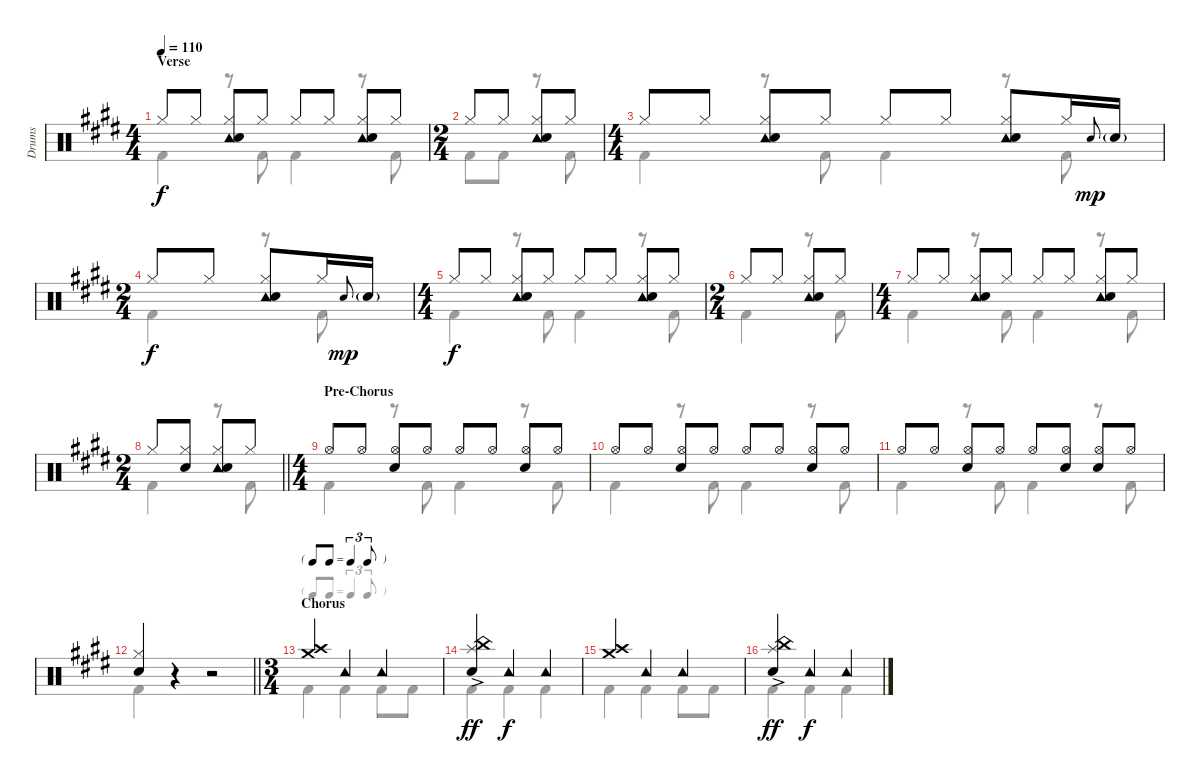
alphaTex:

\track ("Drums" "Drums") {instrument percussion}
\staff {score}
\articulation defaults
\voice
\ts (4 4)
\section ("" "Verse")
\tempo 110
\clef neutral
\ks e "Hi-Hat (closed)".8{dy f} "Hi-Hat (closed)".8
("Tambourine (hit)" "Hi-Hat (closed)" "Snare (hit) 2").8 "Hi-Hat (closed)".8 "Hi-Hat (closed)".8 "Hi-Hat (closed)".8 ("Tambourine (hit)" "Hi-Hat (closed)" "Snare (hit) 2").8 "Hi-Hat (closed)".8 |
\ts (2 4)
"Hi-Hat (closed)".8 "Hi-Hat (closed)".8 ("Tambourine (hit)" "Hi-Hat (closed)" "Snare (hit) 2").8 "Hi-Hat (closed)".8 |
\ts (4 4)
"Hi-Hat (closed)".8 "Hi-Hat (closed)".8 ("Tambourine (hit)" "Hi-Hat (closed)" "Snare (hit) 2").8 "Hi-Hat (closed)".8 "Hi-Hat (closed)".8 "Hi-Hat (closed)".8 ("Tambourine (hit)" "Hi-Hat (closed)" "Snare (hit) 2").8 "Hi-Hat (closed)".16 "Snare (hit) 2".8{gr onbeat dy mp} "Snare (hit) 2"{g}.16 |
\ts (2 4)
"Hi-Hat (closed)".8{dy f} "Hi-Hat (closed)".8 ("Tambourine (hit)" "Hi-Hat (closed)" "Snare (hit) 2").8 "Hi-Hat (closed)".16 "Snare (hit) 2".8{gr onbeat dy mp} "Snare (hit) 2"{g}.16 |
\ts (4 4)
"Hi-Hat (closed)".8{dy f} "Hi-Hat (closed)".8 ("Tambourine (hit)" "Hi-Hat (closed)" "Snare (hit) 2").8 "Hi-Hat (closed)".8 "Hi-Hat (closed)".8 "Hi-Hat (closed)".8 ("Tambourine (hit)" "Hi-Hat (closed)" "Snare (hit) 2").8 "Hi-Hat (closed)".8 |
\ts (2 4)
"Hi-Hat (closed)".8 "Hi-Hat (closed)".8 ("Tambourine (hit)" "Hi-Hat (closed)" "Snare (hit) 2").8 "Hi-Hat (closed)".8 |
\ts (4 4)
"Hi-Hat (closed)".8 "Hi-Hat (closed)".8 ("Tambourine (hit)" "Hi-Hat (closed)" "Snare (hit) 2").8 "Hi-Hat (closed)".8 "Hi-Hat (closed)".8 "Hi-Hat (closed)".8 ("Tambourine (hit)" "Hi-Hat (closed)" "Snare (hit) 2").8 "Hi-Hat (closed)".8 |
\ts (2 4)
\barLineRight lightlight "Hi-Hat (closed)".8
("Hi-Hat (closed)" "Snare (hit) 2").8 ("Tambourine (hit)" "Hi-Hat (closed)" "Snare (hit) 2").8 "Hi-Hat (closed)".8 |
\ts (4 4)
\section ("" "Pre-Chorus")
"Hi-Hat (open)".8 "Hi-Hat (open)".8 ("Hi-Hat (open)" "Snare (hit) 2").8 "Hi-Hat (open)".8 "Hi-Hat (open)".8 "Hi-Hat (open)".8 ("Hi-Hat (open)" "Snare (hit) 2").8 "Hi-Hat (open)".8 |
"Hi-Hat (open)".8 "Hi-Hat (open)".8 ("Hi-Hat (open)" "Snare (hit) 2").8 "Hi-Hat (open)".8 "Hi-Hat (open)".8 "Hi-Hat (open)".8 ("Hi-Hat (open)" "Snare (hit) 2").8 "Hi-Hat (open)".8 |
"Hi-Hat (open)".8 "Hi-Hat (open)".8 ("Hi-Hat (open)" "Snare (hit) 2").8 "Hi-Hat (open)".8 "Hi-Hat (open)".8 ("Hi-Hat (open)" "Snare (hit) 2").8 ("Hi-Hat (open)" "Snare (hit) 2").8 "Hi-Hat (open)".8 |
\barLineRight lightlight
("Hi-Hat (closed)" "Snare (hit) 2").4 r.4 r.2 |
\ts (3 4)
\tf triplet8th
\section ("" "Chorus")
("Crash medium (hit)" "Crash high (hit)").4 "Tambourine (hit)".4 "Tambourine (hit)".4 |
("Splash (hit)" "China (hit)" "Snare (hit) 2"{ac}).4{dy ff} "Tambourine (hit)".4{dy f} "Tambourine (hit)".4 |
("Crash medium (hit)" "Crash high (hit)").4 "Tambourine (hit)".4 "Tambourine (hit)".4 |
("Splash (hit)" "China (hit)" "Snare (hit) 2"{ac}).4{dy ff} "Tambourine (hit)".4{dy f} "Tambourine (hit)".4
\voice
\clef neutral
\ottava regular
\simile none
\ks e "Kick (hit) 2".4{dy f}
r.8 "Kick (hit) 2".8 "Kick (hit) 2".4 r.8 "Kick (hit) 2".8 |
"Kick (hit) 2".8 "Kick (hit) 2".8 r.8 "Kick (hit) 2".8 |
"Kick (hit) 2".4 r.8 "Kick (hit) 2".8 "Kick (hit) 2".4 r.8 "Kick (hit) 2".8 |
"Kick (hit) 2".4 r.8 "Kick (hit) 2".8 |
"Kick (hit) 2".4 r.8 "Kick (hit) 2".8 "Kick (hit) 2".4 r.8 "Kick (hit) 2".8 |
"Kick (hit) 2".4 r.8 "Kick (hit) 2".8 |
"Kick (hit) 2".4 r.8 "Kick (hit) 2".8 "Kick (hit) 2".4 r.8 "Kick (hit) 2".8 |
\barLineRight lightlight "Kick (hit) 2".4
r.8 "Kick (hit) 2".8 |
"Kick (hit) 2".4 r.8 "Kick (hit) 2".8 "Kick (hit) 2".4 r.8 "Kick (hit) 2".8 |
"Kick (hit) 2".4 r.8 "Kick (hit) 2".8 "Kick (hit) 2".4 r.8 "Kick (hit) 2".8 |
"Kick (hit) 2".4 r.8 "Kick (hit) 2".8 "Kick (hit) 2".4 r.8 "Kick (hit) 2".8 |
\barLineRight lightlight "Kick (hit) 2".4
r.4 r.2 |
"Kick (hit) 2".4 "Kick (hit) 2".4 "Kick (hit) 2".8 "Kick (hit) 2".8 |
"Kick (hit) 2".4 "Kick (hit) 2".4 "Kick (hit) 2".4 |
"Kick (hit) 2".4 "Kick (hit) 2".4 "Kick (hit) 2".8 "Kick (hit) 2".8 |
"Kick (hit) 2".4 "Kick (hit) 2".4 "Kick (hit) 2".4
